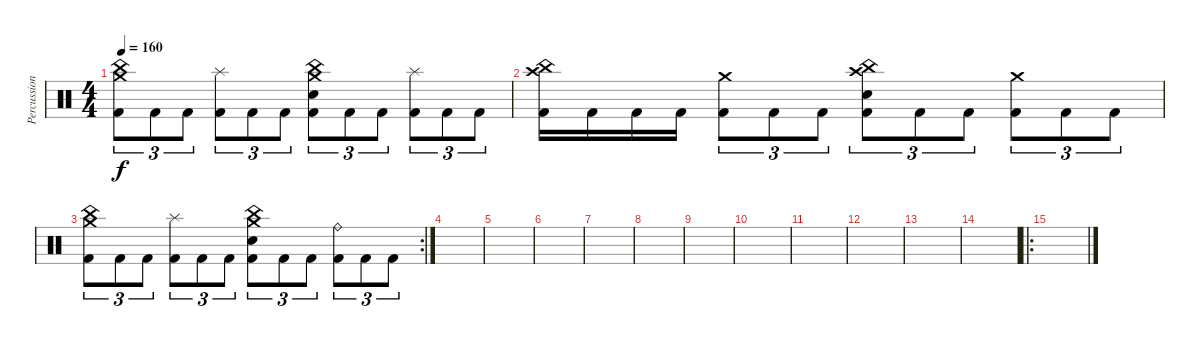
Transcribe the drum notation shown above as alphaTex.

\track ("Percussion" "Percussion") {instrument percussion}
\staff {score}
\articulation defaults
\ts (4 4)
\tempo 160
\clef neutral
\ks c
("Crash medium (hit)" "China (hit)" "Kick (hit) 2").8{tu (3 2) dy f} "Kick (hit) 2".8{tu (3 2)} "Kick (hit) 2".8{tu (3 2)} ("Splash (hit)" "Kick (hit) 2").8{tu (3 2)} "Kick (hit) 2".8{tu (3 2)} "Kick (hit) 2".8{tu (3 2)} ("Crash medium (hit)" "Electric Snare (hit)" "China (hit)" "Kick (hit) 2").8{tu (3 2)} "Kick (hit) 2".8{tu (3 2)} "Kick (hit) 2".8{tu (3 2)} ("Splash (hit)" "Kick (hit) 2").8{tu (3 2)} "Kick (hit) 2".8{tu (3 2)} "Kick (hit) 2".8{tu (3 2)} |
("China (hit)" "Crash high (hit)" "Kick (hit) 2").16 "Kick (hit) 2".16 "Kick (hit) 2".16 "Kick (hit) 2".16 ("Crash medium (hit)" "Kick (hit) 2").8{tu (3 2)} "Kick (hit) 2".8{tu (3 2)} "Kick (hit) 2".8{tu (3 2)} ("Crash high (hit)" "China (hit)" "Electric Snare (hit)" "Kick (hit) 2").8{tu (3 2)} "Kick (hit) 2".8{tu (3 2)} "Kick (hit) 2".8{tu (3 2)} ("Crash medium (hit)" "Kick (hit) 2").8{tu (3 2)} "Kick (hit) 2".8{tu (3 2)} "Kick (hit) 2".8{tu (3 2)} |
\rc 2
("Crash medium (hit)" "China (hit)" "Kick (hit) 2").8{tu (3 2)} "Kick (hit) 2".8{tu (3 2)} "Kick (hit) 2".8{tu (3 2)} ("Splash (hit)" "Kick (hit) 2").8{tu (3 2)} "Kick (hit) 2".8{tu (3 2)} "Kick (hit) 2".8{tu (3 2)} ("Crash medium (hit)" "Electric Snare (hit)" "China (hit)" "Kick (hit) 2").8{tu (3 2)} "Kick (hit) 2".8{tu (3 2)} "Kick (hit) 2".8{tu (3 2)} ("Ride (bell)" "Kick (hit) 2").8{tu (3 2)} "Kick (hit) 2".8{tu (3 2)} "Kick (hit) 2".8{tu (3 2)} |
|
|
|
|
|
|
|
|
|
|
|
\ro
